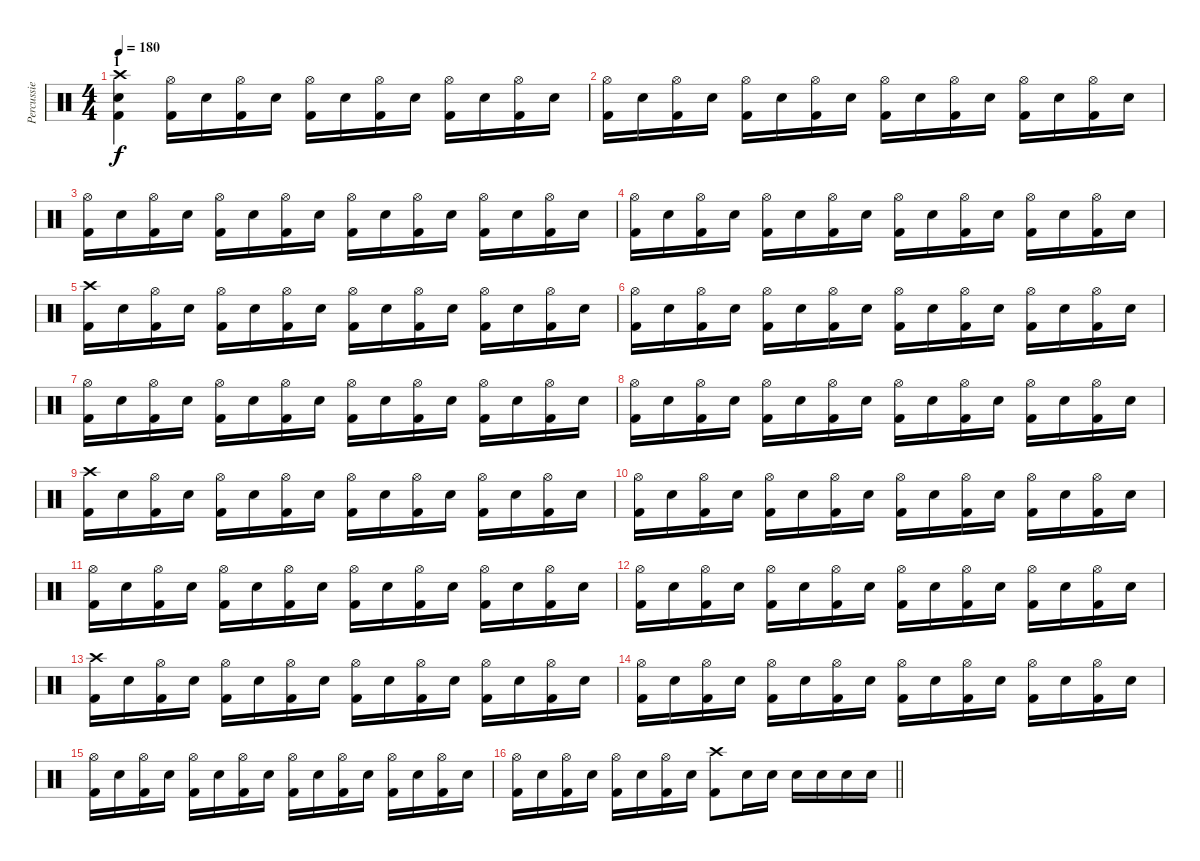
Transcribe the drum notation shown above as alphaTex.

\track ("Percussie" "Percussie") {instrument percussion}
\staff {score}
\articulation defaults
\ts (4 4)
\section ("" "1")
\tempo 180
\clef neutral
\ks c
("Crash high (hit)" "Snare (hit) 2" "Kick (hit) 2").4{dy f} ("Hi-Hat (open)" "Kick (hit) 2").16 "Snare (hit) 2".16 ("Hi-Hat (open)" "Kick (hit) 2").16 "Snare (hit) 2".16 ("Hi-Hat (open)" "Kick (hit) 2").16 "Snare (hit) 2".16 ("Hi-Hat (open)" "Kick (hit) 2").16 "Snare (hit) 2".16 ("Hi-Hat (open)" "Kick (hit) 2").16 "Snare (hit) 2".16 ("Hi-Hat (open)" "Kick (hit) 2").16 "Snare (hit) 2".16 |
("Hi-Hat (open)" "Kick (hit) 2").16 "Snare (hit) 2".16 ("Hi-Hat (open)" "Kick (hit) 2").16 "Snare (hit) 2".16 ("Hi-Hat (open)" "Kick (hit) 2").16 "Snare (hit) 2".16 ("Hi-Hat (open)" "Kick (hit) 2").16 "Snare (hit) 2".16 ("Hi-Hat (open)" "Kick (hit) 2").16 "Snare (hit) 2".16 ("Hi-Hat (open)" "Kick (hit) 2").16 "Snare (hit) 2".16 ("Hi-Hat (open)" "Kick (hit) 2").16 "Snare (hit) 2".16 ("Hi-Hat (open)" "Kick (hit) 2").16 "Snare (hit) 2".16 |
("Hi-Hat (open)" "Kick (hit) 2").16 "Snare (hit) 2".16 ("Hi-Hat (open)" "Kick (hit) 2").16 "Snare (hit) 2".16 ("Hi-Hat (open)" "Kick (hit) 2").16 "Snare (hit) 2".16 ("Hi-Hat (open)" "Kick (hit) 2").16 "Snare (hit) 2".16 ("Hi-Hat (open)" "Kick (hit) 2").16 "Snare (hit) 2".16 ("Hi-Hat (open)" "Kick (hit) 2").16 "Snare (hit) 2".16 ("Hi-Hat (open)" "Kick (hit) 2").16 "Snare (hit) 2".16 ("Hi-Hat (open)" "Kick (hit) 2").16 "Snare (hit) 2".16 |
("Hi-Hat (open)" "Kick (hit) 2").16 "Snare (hit) 2".16 ("Hi-Hat (open)" "Kick (hit) 2").16 "Snare (hit) 2".16 ("Hi-Hat (open)" "Kick (hit) 2").16 "Snare (hit) 2".16 ("Hi-Hat (open)" "Kick (hit) 2").16 "Snare (hit) 2".16 ("Hi-Hat (open)" "Kick (hit) 2").16 "Snare (hit) 2".16 ("Hi-Hat (open)" "Kick (hit) 2").16 "Snare (hit) 2".16 ("Hi-Hat (open)" "Kick (hit) 2").16 "Snare (hit) 2".16 ("Hi-Hat (open)" "Kick (hit) 2").16 "Snare (hit) 2".16 |
("Crash high (hit)" "Kick (hit) 2").16 "Snare (hit) 2".16 ("Hi-Hat (open)" "Kick (hit) 2").16 "Snare (hit) 2".16 ("Hi-Hat (open)" "Kick (hit) 2").16 "Snare (hit) 2".16 ("Hi-Hat (open)" "Kick (hit) 2").16 "Snare (hit) 2".16 ("Hi-Hat (open)" "Kick (hit) 2").16 "Snare (hit) 2".16 ("Hi-Hat (open)" "Kick (hit) 2").16 "Snare (hit) 2".16 ("Hi-Hat (open)" "Kick (hit) 2").16 "Snare (hit) 2".16 ("Hi-Hat (open)" "Kick (hit) 2").16 "Snare (hit) 2".16 |
("Hi-Hat (open)" "Kick (hit) 2").16 "Snare (hit) 2".16 ("Hi-Hat (open)" "Kick (hit) 2").16 "Snare (hit) 2".16 ("Hi-Hat (open)" "Kick (hit) 2").16 "Snare (hit) 2".16 ("Hi-Hat (open)" "Kick (hit) 2").16 "Snare (hit) 2".16 ("Hi-Hat (open)" "Kick (hit) 2").16 "Snare (hit) 2".16 ("Hi-Hat (open)" "Kick (hit) 2").16 "Snare (hit) 2".16 ("Hi-Hat (open)" "Kick (hit) 2").16 "Snare (hit) 2".16 ("Hi-Hat (open)" "Kick (hit) 2").16 "Snare (hit) 2".16 |
("Hi-Hat (open)" "Kick (hit) 2").16 "Snare (hit) 2".16 ("Hi-Hat (open)" "Kick (hit) 2").16 "Snare (hit) 2".16 ("Hi-Hat (open)" "Kick (hit) 2").16 "Snare (hit) 2".16 ("Hi-Hat (open)" "Kick (hit) 2").16 "Snare (hit) 2".16 ("Hi-Hat (open)" "Kick (hit) 2").16 "Snare (hit) 2".16 ("Hi-Hat (open)" "Kick (hit) 2").16 "Snare (hit) 2".16 ("Hi-Hat (open)" "Kick (hit) 2").16 "Snare (hit) 2".16 ("Hi-Hat (open)" "Kick (hit) 2").16 "Snare (hit) 2".16 |
("Hi-Hat (open)" "Kick (hit) 2").16 "Snare (hit) 2".16 ("Hi-Hat (open)" "Kick (hit) 2").16 "Snare (hit) 2".16 ("Hi-Hat (open)" "Kick (hit) 2").16 "Snare (hit) 2".16 ("Hi-Hat (open)" "Kick (hit) 2").16 "Snare (hit) 2".16 ("Hi-Hat (open)" "Kick (hit) 2").16 "Snare (hit) 2".16 ("Hi-Hat (open)" "Kick (hit) 2").16 "Snare (hit) 2".16 ("Hi-Hat (open)" "Kick (hit) 2").16 "Snare (hit) 2".16 ("Hi-Hat (open)" "Kick (hit) 2").16 "Snare (hit) 2".16 |
("Crash high (hit)" "Kick (hit) 2").16 "Snare (hit) 2".16 ("Hi-Hat (open)" "Kick (hit) 2").16 "Snare (hit) 2".16 ("Hi-Hat (open)" "Kick (hit) 2").16 "Snare (hit) 2".16 ("Hi-Hat (open)" "Kick (hit) 2").16 "Snare (hit) 2".16 ("Hi-Hat (open)" "Kick (hit) 2").16 "Snare (hit) 2".16 ("Hi-Hat (open)" "Kick (hit) 2").16 "Snare (hit) 2".16 ("Hi-Hat (open)" "Kick (hit) 2").16 "Snare (hit) 2".16 ("Hi-Hat (open)" "Kick (hit) 2").16 "Snare (hit) 2".16 |
("Hi-Hat (open)" "Kick (hit) 2").16 "Snare (hit) 2".16 ("Hi-Hat (open)" "Kick (hit) 2").16 "Snare (hit) 2".16 ("Hi-Hat (open)" "Kick (hit) 2").16 "Snare (hit) 2".16 ("Hi-Hat (open)" "Kick (hit) 2").16 "Snare (hit) 2".16 ("Hi-Hat (open)" "Kick (hit) 2").16 "Snare (hit) 2".16 ("Hi-Hat (open)" "Kick (hit) 2").16 "Snare (hit) 2".16 ("Hi-Hat (open)" "Kick (hit) 2").16 "Snare (hit) 2".16 ("Hi-Hat (open)" "Kick (hit) 2").16 "Snare (hit) 2".16 |
("Hi-Hat (open)" "Kick (hit) 2").16 "Snare (hit) 2".16 ("Hi-Hat (open)" "Kick (hit) 2").16 "Snare (hit) 2".16 ("Hi-Hat (open)" "Kick (hit) 2").16 "Snare (hit) 2".16 ("Hi-Hat (open)" "Kick (hit) 2").16 "Snare (hit) 2".16 ("Hi-Hat (open)" "Kick (hit) 2").16 "Snare (hit) 2".16 ("Hi-Hat (open)" "Kick (hit) 2").16 "Snare (hit) 2".16 ("Hi-Hat (open)" "Kick (hit) 2").16 "Snare (hit) 2".16 ("Hi-Hat (open)" "Kick (hit) 2").16 "Snare (hit) 2".16 |
("Hi-Hat (open)" "Kick (hit) 2").16 "Snare (hit) 2".16 ("Hi-Hat (open)" "Kick (hit) 2").16 "Snare (hit) 2".16 ("Hi-Hat (open)" "Kick (hit) 2").16 "Snare (hit) 2".16 ("Hi-Hat (open)" "Kick (hit) 2").16 "Snare (hit) 2".16 ("Hi-Hat (open)" "Kick (hit) 2").16 "Snare (hit) 2".16 ("Hi-Hat (open)" "Kick (hit) 2").16 "Snare (hit) 2".16 ("Hi-Hat (open)" "Kick (hit) 2").16 "Snare (hit) 2".16 ("Hi-Hat (open)" "Kick (hit) 2").16 "Snare (hit) 2".16 |
("Crash high (hit)" "Kick (hit) 2").16 "Snare (hit) 2".16 ("Hi-Hat (open)" "Kick (hit) 2").16 "Snare (hit) 2".16 ("Hi-Hat (open)" "Kick (hit) 2").16 "Snare (hit) 2".16 ("Hi-Hat (open)" "Kick (hit) 2").16 "Snare (hit) 2".16 ("Hi-Hat (open)" "Kick (hit) 2").16 "Snare (hit) 2".16 ("Hi-Hat (open)" "Kick (hit) 2").16 "Snare (hit) 2".16 ("Hi-Hat (open)" "Kick (hit) 2").16 "Snare (hit) 2".16 ("Hi-Hat (open)" "Kick (hit) 2").16 "Snare (hit) 2".16 |
("Hi-Hat (open)" "Kick (hit) 2").16 "Snare (hit) 2".16 ("Hi-Hat (open)" "Kick (hit) 2").16 "Snare (hit) 2".16 ("Hi-Hat (open)" "Kick (hit) 2").16 "Snare (hit) 2".16 ("Hi-Hat (open)" "Kick (hit) 2").16 "Snare (hit) 2".16 ("Hi-Hat (open)" "Kick (hit) 2").16 "Snare (hit) 2".16 ("Hi-Hat (open)" "Kick (hit) 2").16 "Snare (hit) 2".16 ("Hi-Hat (open)" "Kick (hit) 2").16 "Snare (hit) 2".16 ("Hi-Hat (open)" "Kick (hit) 2").16 "Snare (hit) 2".16 |
("Hi-Hat (open)" "Kick (hit) 2").16 "Snare (hit) 2".16 ("Hi-Hat (open)" "Kick (hit) 2").16 "Snare (hit) 2".16 ("Hi-Hat (open)" "Kick (hit) 2").16 "Snare (hit) 2".16 ("Hi-Hat (open)" "Kick (hit) 2").16 "Snare (hit) 2".16 ("Hi-Hat (open)" "Kick (hit) 2").16 "Snare (hit) 2".16 ("Hi-Hat (open)" "Kick (hit) 2").16 "Snare (hit) 2".16 ("Hi-Hat (open)" "Kick (hit) 2").16 "Snare (hit) 2".16 ("Hi-Hat (open)" "Kick (hit) 2").16 "Snare (hit) 2".16 |
\barLineRight lightlight
("Hi-Hat (open)" "Kick (hit) 2").16 "Snare (hit) 2".16 ("Hi-Hat (open)" "Kick (hit) 2").16 "Snare (hit) 2".16 ("Hi-Hat (open)" "Kick (hit) 2").16 "Snare (hit) 2".16 ("Hi-Hat (open)" "Kick (hit) 2").16 "Snare (hit) 2".16 ("Crash high (hit)" "Kick (hit) 2").8 "Snare (hit) 2".16 "Snare (hit) 2".16 "Snare (hit) 2".16 "Snare (hit) 2".16 "Snare (hit) 2".16 "Snare (hit) 2".16
